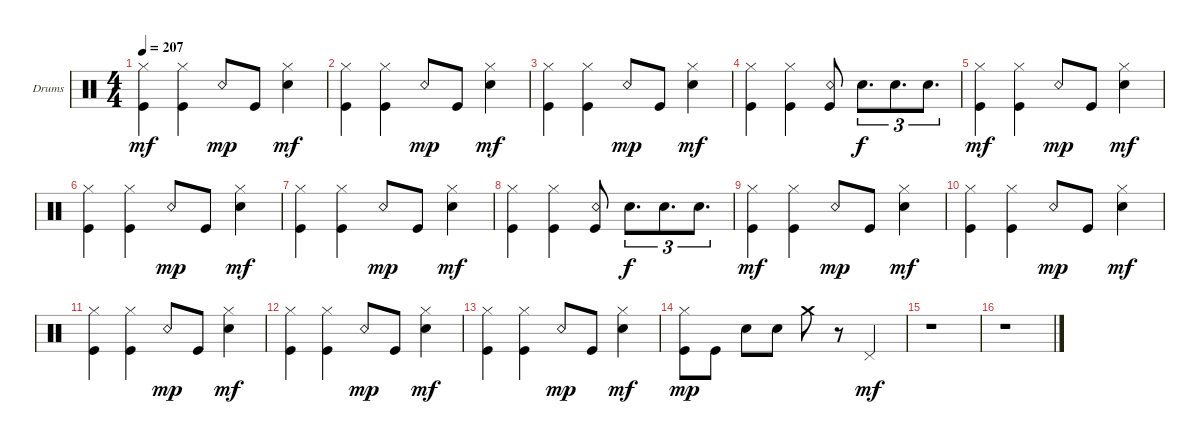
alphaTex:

\defaultSystemsLayout 4
\bracketExtendMode groupsimilarinstruments
\firstSystemTrackNameOrientation horizontal
\otherSystemsTrackNameOrientation horizontal
\track ("Drumkit" "Drums") {instrument percussion}
\staff {score}
\articulation defaults
\ts (4 4)
\tempo 207
\clef neutral
\ks c
("Kick (hit)" "Hi-Hat (closed)").4{dy mf} ("Hi-Hat (closed)" "Kick (hit)").4 "Snare (rim shot)".8{dy mp} "Kick (hit)".8 ("Hi-Hat (closed)" "Snare (hit) 2").4{dy mf} |
("Kick (hit)" "Hi-Hat (closed)").4 ("Hi-Hat (closed)" "Kick (hit)").4 "Snare (rim shot)".8{dy mp} "Kick (hit)".8 ("Hi-Hat (closed)" "Snare (hit) 2").4{dy mf} |
("Kick (hit)" "Hi-Hat (closed)").4 ("Hi-Hat (closed)" "Kick (hit)").4 "Snare (rim shot)".8{dy mp} "Kick (hit)".8 ("Hi-Hat (closed)" "Snare (hit) 2").4{dy mf} |
("Kick (hit)" "Hi-Hat (closed)").4 ("Hi-Hat (closed)" "Kick (hit)").4 ("Kick (hit)" "Snare (rim shot)").8 "Snare (hit) 2".8{d tu (3 2) dy f} "Snare (hit) 2".8{d tu (3 2)} "Snare (hit) 2".8{d tu (3 2)} |
("Kick (hit)" "Hi-Hat (closed)").4{dy mf} ("Hi-Hat (closed)" "Kick (hit)").4 "Snare (rim shot)".8{dy mp} "Kick (hit)".8 ("Hi-Hat (closed)" "Snare (hit) 2").4{dy mf} |
("Kick (hit)" "Hi-Hat (closed)").4 ("Hi-Hat (closed)" "Kick (hit)").4 "Snare (rim shot)".8{dy mp} "Kick (hit)".8 ("Hi-Hat (closed)" "Snare (hit) 2").4{dy mf} |
("Kick (hit)" "Hi-Hat (closed)").4 ("Hi-Hat (closed)" "Kick (hit)").4 "Snare (rim shot)".8{dy mp} "Kick (hit)".8 ("Hi-Hat (closed)" "Snare (hit) 2").4{dy mf} |
("Kick (hit)" "Hi-Hat (closed)").4 ("Hi-Hat (closed)" "Kick (hit)").4 ("Kick (hit)" "Snare (rim shot)").8 "Snare (hit) 2".8{d tu (3 2) dy f} "Snare (hit) 2".8{d tu (3 2)} "Snare (hit) 2".8{d tu (3 2)} |
("Kick (hit)" "Hi-Hat (closed)").4{dy mf} ("Hi-Hat (closed)" "Kick (hit)").4 "Snare (rim shot)".8{dy mp} "Kick (hit)".8 ("Hi-Hat (closed)" "Snare (hit) 2").4{dy mf} |
("Kick (hit)" "Hi-Hat (closed)").4 ("Hi-Hat (closed)" "Kick (hit)").4 "Snare (rim shot)".8{dy mp} "Kick (hit)".8 ("Hi-Hat (closed)" "Snare (hit) 2").4{dy mf} |
("Kick (hit)" "Hi-Hat (closed)").4 ("Hi-Hat (closed)" "Kick (hit)").4 "Snare (rim shot)".8{dy mp} "Kick (hit)".8 ("Hi-Hat (closed)" "Snare (hit) 2").4{dy mf} |
("Kick (hit)" "Hi-Hat (closed)").4 ("Hi-Hat (closed)" "Kick (hit)").4 "Snare (rim shot)".8{dy mp} "Kick (hit)".8 ("Hi-Hat (closed)" "Snare (hit) 2").4{dy mf} |
("Kick (hit)" "Hi-Hat (closed)").4 ("Hi-Hat (closed)" "Kick (hit)").4 "Snare (rim shot)".8{dy mp} "Kick (hit)".8 ("Hi-Hat (closed)" "Snare (hit) 2").4{dy mf} |
("Kick (hit)" "Hi-Hat (closed)").8{dy mp} "Kick (hit)".8 "Snare (hit) 2".8 "Snare (hit) 2".8 "Crash medium (hit)".8 r.8 "Pedal Hi-Hat (hit)".4{dy mf} |
r.1 |
r.1
